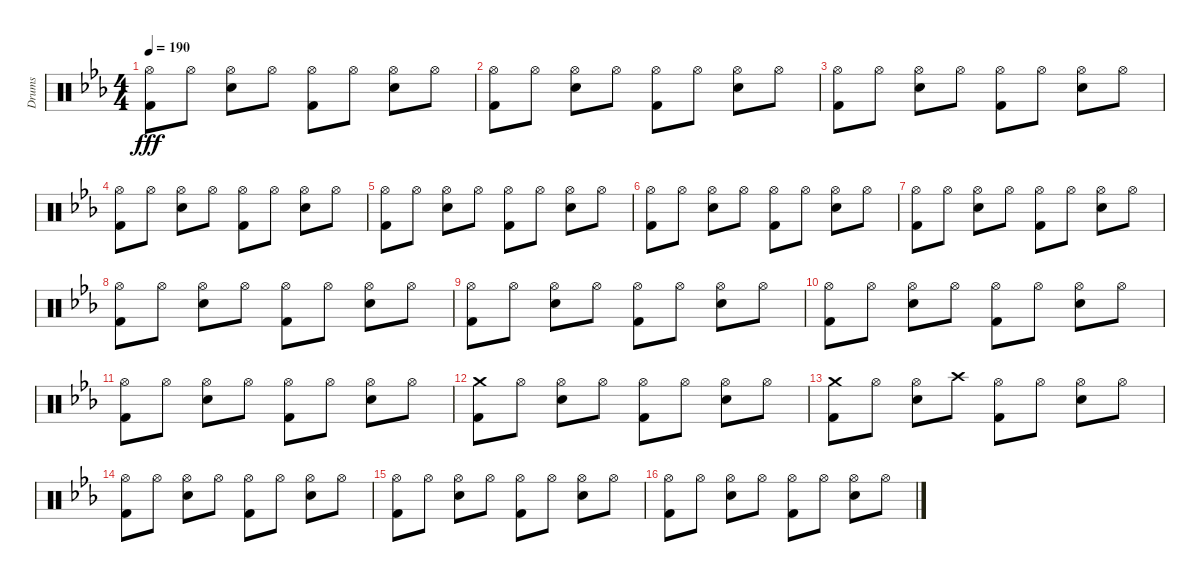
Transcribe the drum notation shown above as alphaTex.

\track ("Drums" "Drums") {instrument percussion}
\staff {score}
\articulation defaults
\ts (4 4)
\tempo 190
\clef neutral
\ks eb
("Hi-Hat (open)" "Kick (hit) 2").8{dy fff} "Hi-Hat (open)".8 ("Hi-Hat (open)" "Electric Snare (hit)").8 "Hi-Hat (open)".8 ("Hi-Hat (open)" "Kick (hit) 2").8 "Hi-Hat (open)".8 ("Hi-Hat (open)" "Electric Snare (hit)").8 "Hi-Hat (open)".8 |
("Hi-Hat (open)" "Kick (hit) 2").8 "Hi-Hat (open)".8 ("Hi-Hat (open)" "Electric Snare (hit)").8 "Hi-Hat (open)".8 ("Hi-Hat (open)" "Kick (hit) 2").8 "Hi-Hat (open)".8 ("Hi-Hat (open)" "Electric Snare (hit)").8 "Hi-Hat (open)".8 |
("Hi-Hat (open)" "Kick (hit) 2").8 "Hi-Hat (open)".8 ("Hi-Hat (open)" "Electric Snare (hit)").8 "Hi-Hat (open)".8 ("Hi-Hat (open)" "Kick (hit) 2").8 "Hi-Hat (open)".8 ("Hi-Hat (open)" "Electric Snare (hit)").8 "Hi-Hat (open)".8 |
("Hi-Hat (open)" "Kick (hit) 2").8 "Hi-Hat (open)".8 ("Hi-Hat (open)" "Electric Snare (hit)").8 "Hi-Hat (open)".8 ("Hi-Hat (open)" "Kick (hit) 2").8 "Hi-Hat (open)".8 ("Hi-Hat (open)" "Electric Snare (hit)").8 "Hi-Hat (open)".8 |
("Hi-Hat (open)" "Kick (hit) 2").8 "Hi-Hat (open)".8 ("Hi-Hat (open)" "Electric Snare (hit)").8 "Hi-Hat (open)".8 ("Hi-Hat (open)" "Kick (hit) 2").8 "Hi-Hat (open)".8 ("Hi-Hat (open)" "Electric Snare (hit)").8 "Hi-Hat (open)".8 |
("Hi-Hat (open)" "Kick (hit) 2").8 "Hi-Hat (open)".8 ("Hi-Hat (open)" "Electric Snare (hit)").8 "Hi-Hat (open)".8 ("Hi-Hat (open)" "Kick (hit) 2").8 "Hi-Hat (open)".8 ("Hi-Hat (open)" "Electric Snare (hit)").8 "Hi-Hat (open)".8 |
("Hi-Hat (open)" "Kick (hit) 2").8 "Hi-Hat (open)".8 ("Hi-Hat (open)" "Electric Snare (hit)").8 "Hi-Hat (open)".8 ("Hi-Hat (open)" "Kick (hit) 2").8 "Hi-Hat (open)".8 ("Hi-Hat (open)" "Electric Snare (hit)").8 "Hi-Hat (open)".8 |
("Hi-Hat (open)" "Kick (hit) 2").8 "Hi-Hat (open)".8 ("Hi-Hat (open)" "Electric Snare (hit)").8 "Hi-Hat (open)".8 ("Hi-Hat (open)" "Kick (hit) 2").8 "Hi-Hat (open)".8 ("Hi-Hat (open)" "Electric Snare (hit)").8 "Hi-Hat (open)".8 |
("Hi-Hat (open)" "Kick (hit) 2").8 "Hi-Hat (open)".8 ("Hi-Hat (open)" "Electric Snare (hit)").8 "Hi-Hat (open)".8 ("Hi-Hat (open)" "Kick (hit) 2").8 "Hi-Hat (open)".8 ("Hi-Hat (open)" "Electric Snare (hit)").8 "Hi-Hat (open)".8 |
("Hi-Hat (open)" "Kick (hit) 2").8 "Hi-Hat (open)".8 ("Hi-Hat (open)" "Electric Snare (hit)").8 "Hi-Hat (open)".8 ("Hi-Hat (open)" "Kick (hit) 2").8 "Hi-Hat (open)".8 ("Hi-Hat (open)" "Electric Snare (hit)").8 "Hi-Hat (open)".8 |
("Hi-Hat (open)" "Kick (hit) 2").8 "Hi-Hat (open)".8 ("Hi-Hat (open)" "Electric Snare (hit)").8 "Hi-Hat (open)".8 ("Hi-Hat (open)" "Kick (hit) 2").8 "Hi-Hat (open)".8 ("Hi-Hat (open)" "Electric Snare (hit)").8 "Hi-Hat (open)".8 |
("Crash medium (hit)" "Kick (hit) 2").8 "Hi-Hat (open)".8 ("Hi-Hat (open)" "Electric Snare (hit)").8 "Hi-Hat (open)".8 ("Hi-Hat (open)" "Kick (hit) 2").8 "Hi-Hat (open)".8 ("Hi-Hat (open)" "Electric Snare (hit)").8 "Hi-Hat (open)".8 |
("Crash medium (hit)" "Kick (hit) 2").8 "Hi-Hat (open)".8 ("Hi-Hat (open)" "Electric Snare (hit)").8 "Crash high (hit)".8 ("Hi-Hat (open)" "Kick (hit) 2").8 "Hi-Hat (open)".8 ("Hi-Hat (open)" "Electric Snare (hit)").8 "Hi-Hat (open)".8 |
("Hi-Hat (open)" "Kick (hit) 2").8 "Hi-Hat (open)".8 ("Hi-Hat (open)" "Electric Snare (hit)").8 "Hi-Hat (open)".8 ("Hi-Hat (open)" "Kick (hit) 2").8 "Hi-Hat (open)".8 ("Hi-Hat (open)" "Electric Snare (hit)").8 "Hi-Hat (open)".8 |
("Hi-Hat (open)" "Kick (hit) 2").8 "Hi-Hat (open)".8 ("Hi-Hat (open)" "Electric Snare (hit)").8 "Hi-Hat (open)".8 ("Hi-Hat (open)" "Kick (hit) 2").8 "Hi-Hat (open)".8 ("Hi-Hat (open)" "Electric Snare (hit)").8 "Hi-Hat (open)".8 |
("Hi-Hat (open)" "Kick (hit) 2").8 "Hi-Hat (open)".8 ("Hi-Hat (open)" "Electric Snare (hit)").8 "Hi-Hat (open)".8 ("Hi-Hat (open)" "Kick (hit) 2").8 "Hi-Hat (open)".8 ("Hi-Hat (open)" "Electric Snare (hit)").8 "Hi-Hat (open)".8
